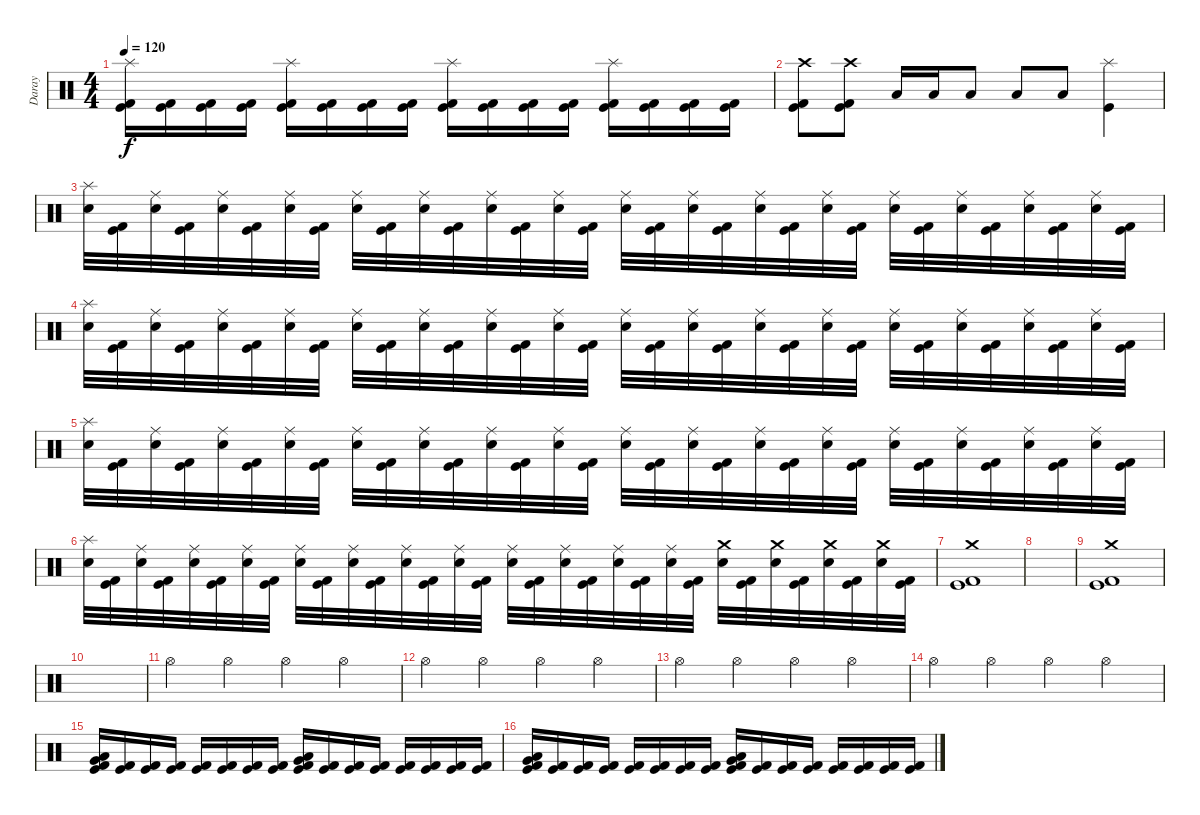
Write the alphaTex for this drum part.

\track ("Daray" "Daray") {instrument percussion}
\staff {score}
\articulation defaults
\ts (4 4)
\tempo 120
\clef neutral
\ks c
("Splash (hit)" "Kick (hit) 2" "Kick (hit)").16{dy f} ("Kick (hit) 2" "Kick (hit)").16 ("Kick (hit) 2" "Kick (hit)").16 ("Kick (hit) 2" "Kick (hit)").16 ("Splash (hit)" "Kick (hit) 2" "Kick (hit)").16 ("Kick (hit) 2" "Kick (hit)").16 ("Kick (hit) 2" "Kick (hit)").16 ("Kick (hit) 2" "Kick (hit)").16 ("Splash (hit)" "Kick (hit) 2" "Kick (hit)").16 ("Kick (hit) 2" "Kick (hit)").16 ("Kick (hit) 2" "Kick (hit)").16 ("Kick (hit) 2" "Kick (hit)").16 ("Splash (hit)" "Kick (hit) 2" "Kick (hit)").16 ("Kick (hit) 2" "Kick (hit)").16 ("Kick (hit) 2" "Kick (hit)").16 ("Kick (hit) 2" "Kick (hit)").16 |
("Crash high (hit)" "Kick (hit) 2" "Kick (hit)").8 ("Crash high (hit)" "Kick (hit) 2" "Kick (hit)").8 "Low Tom (hit)".16 "Low Tom (hit)".16 "Low Floor Tom (hit)".8 "Low Floor Tom (hit)".8 "Low Floor Tom (hit)".8 ("Splash (hit)" "Kick (hit)").4 |
("Splash (hit)" "Snare (hit) 2").32 ("Kick (hit) 2" "Kick (hit)").32 ("Ride (middle)" "Snare (hit) 2").32 ("Kick (hit) 2" "Kick (hit)").32 ("Ride (middle)" "Snare (hit) 2").32 ("Kick (hit) 2" "Kick (hit)").32 ("Ride (middle)" "Snare (hit) 2").32 ("Kick (hit) 2" "Kick (hit)").32 ("Ride (middle)" "Snare (hit) 2").32 ("Kick (hit) 2" "Kick (hit)").32 ("Ride (middle)" "Snare (hit) 2").32 ("Kick (hit) 2" "Kick (hit)").32 ("Ride (middle)" "Snare (hit) 2").32 ("Kick (hit) 2" "Kick (hit)").32 ("Ride (middle)" "Snare (hit) 2").32 ("Kick (hit) 2" "Kick (hit)").32 ("Ride (middle)" "Snare (hit) 2").32 ("Kick (hit) 2" "Kick (hit)").32 ("Ride (middle)" "Snare (hit) 2").32 ("Kick (hit) 2" "Kick (hit)").32 ("Ride (middle)" "Snare (hit) 2").32 ("Kick (hit) 2" "Kick (hit)").32 ("Ride (middle)" "Snare (hit) 2").32 ("Kick (hit) 2" "Kick (hit)").32 ("Ride (middle)" "Snare (hit) 2").32 ("Kick (hit) 2" "Kick (hit)").32 ("Ride (middle)" "Snare (hit) 2").32 ("Kick (hit) 2" "Kick (hit)").32 ("Ride (middle)" "Snare (hit) 2").32 ("Kick (hit) 2" "Kick (hit)").32 ("Ride (middle)" "Snare (hit) 2").32 ("Kick (hit) 2" "Kick (hit)").32 |
("Splash (hit)" "Snare (hit) 2").32 ("Kick (hit) 2" "Kick (hit)").32 ("Ride (middle)" "Snare (hit) 2").32 ("Kick (hit) 2" "Kick (hit)").32 ("Ride (middle)" "Snare (hit) 2").32 ("Kick (hit) 2" "Kick (hit)").32 ("Ride (middle)" "Snare (hit) 2").32 ("Kick (hit) 2" "Kick (hit)").32 ("Ride (middle)" "Snare (hit) 2").32 ("Kick (hit) 2" "Kick (hit)").32 ("Ride (middle)" "Snare (hit) 2").32 ("Kick (hit) 2" "Kick (hit)").32 ("Ride (middle)" "Snare (hit) 2").32 ("Kick (hit) 2" "Kick (hit)").32 ("Ride (middle)" "Snare (hit) 2").32 ("Kick (hit) 2" "Kick (hit)").32 ("Ride (middle)" "Snare (hit) 2").32 ("Kick (hit) 2" "Kick (hit)").32 ("Ride (middle)" "Snare (hit) 2").32 ("Kick (hit) 2" "Kick (hit)").32 ("Ride (middle)" "Snare (hit) 2").32 ("Kick (hit) 2" "Kick (hit)").32 ("Ride (middle)" "Snare (hit) 2").32 ("Kick (hit) 2" "Kick (hit)").32 ("Ride (middle)" "Snare (hit) 2").32 ("Kick (hit) 2" "Kick (hit)").32 ("Ride (middle)" "Snare (hit) 2").32 ("Kick (hit) 2" "Kick (hit)").32 ("Ride (middle)" "Snare (hit) 2").32 ("Kick (hit) 2" "Kick (hit)").32 ("Ride (middle)" "Snare (hit) 2").32 ("Kick (hit) 2" "Kick (hit)").32 |
("Splash (hit)" "Snare (hit) 2").32 ("Kick (hit) 2" "Kick (hit)").32 ("Ride (middle)" "Snare (hit) 2").32 ("Kick (hit) 2" "Kick (hit)").32 ("Ride (middle)" "Snare (hit) 2").32 ("Kick (hit) 2" "Kick (hit)").32 ("Ride (middle)" "Snare (hit) 2").32 ("Kick (hit) 2" "Kick (hit)").32 ("Ride (middle)" "Snare (hit) 2").32 ("Kick (hit) 2" "Kick (hit)").32 ("Ride (middle)" "Snare (hit) 2").32 ("Kick (hit) 2" "Kick (hit)").32 ("Ride (middle)" "Snare (hit) 2").32 ("Kick (hit) 2" "Kick (hit)").32 ("Ride (middle)" "Snare (hit) 2").32 ("Kick (hit) 2" "Kick (hit)").32 ("Ride (middle)" "Snare (hit) 2").32 ("Kick (hit) 2" "Kick (hit)").32 ("Ride (middle)" "Snare (hit) 2").32 ("Kick (hit) 2" "Kick (hit)").32 ("Ride (middle)" "Snare (hit) 2").32 ("Kick (hit) 2" "Kick (hit)").32 ("Ride (middle)" "Snare (hit) 2").32 ("Kick (hit) 2" "Kick (hit)").32 ("Ride (middle)" "Snare (hit) 2").32 ("Kick (hit) 2" "Kick (hit)").32 ("Ride (middle)" "Snare (hit) 2").32 ("Kick (hit) 2" "Kick (hit)").32 ("Ride (middle)" "Snare (hit) 2").32 ("Kick (hit) 2" "Kick (hit)").32 ("Ride (middle)" "Snare (hit) 2").32 ("Kick (hit) 2" "Kick (hit)").32 |
("Splash (hit)" "Snare (hit) 2").32 ("Kick (hit) 2" "Kick (hit)").32 ("Ride (middle)" "Snare (hit) 2").32 ("Kick (hit) 2" "Kick (hit)").32 ("Ride (middle)" "Snare (hit) 2").32 ("Kick (hit) 2" "Kick (hit)").32 ("Ride (middle)" "Snare (hit) 2").32 ("Kick (hit) 2" "Kick (hit)").32 ("Ride (middle)" "Snare (hit) 2").32 ("Kick (hit) 2" "Kick (hit)").32 ("Ride (middle)" "Snare (hit) 2").32 ("Kick (hit) 2" "Kick (hit)").32 ("Ride (middle)" "Snare (hit) 2").32 ("Kick (hit) 2" "Kick (hit)").32 ("Ride (middle)" "Snare (hit) 2").32 ("Kick (hit) 2" "Kick (hit)").32 ("Ride (middle)" "Snare (hit) 2").32 ("Kick (hit) 2" "Kick (hit)").32 ("Ride (middle)" "Snare (hit) 2").32 ("Kick (hit) 2" "Kick (hit)").32 ("Ride (middle)" "Snare (hit) 2").32 ("Kick (hit) 2" "Kick (hit)").32 ("Ride (middle)" "Snare (hit) 2").32 ("Kick (hit) 2" "Kick (hit)").32 ("Crash medium (hit)" "Snare (hit) 2").32 ("Kick (hit) 2" "Kick (hit)").32 ("Crash medium (hit)" "Snare (hit) 2").32 ("Kick (hit) 2" "Kick (hit)").32 ("Crash medium (hit)" "Snare (hit) 2").32 ("Kick (hit) 2" "Kick (hit)").32 ("Crash medium (hit)" "Snare (hit) 2").32 ("Kick (hit) 2" "Kick (hit)").32 |
("Crash medium (hit)" "Kick (hit) 2" "Kick (hit)").1 |
|
("Crash medium (hit)" "Kick (hit) 2" "Kick (hit)").1 |
|
"Hi-Hat (open)".4 "Hi-Hat (open)".4 "Hi-Hat (open)".4 "Hi-Hat (open)".4 |
"Hi-Hat (open)".4 "Hi-Hat (open)".4 "Hi-Hat (open)".4 "Hi-Hat (open)".4 |
"Hi-Hat (open)".4 "Hi-Hat (open)".4 "Hi-Hat (open)".4 "Hi-Hat (open)".4 |
"Hi-Hat (open)".4 "Hi-Hat (open)".4 "Hi-Hat (open)".4 "Hi-Hat (open)".4 |
("Very Low Tom (hit)" "Low Tom (hit)" "Kick (hit) 2" "Kick (hit)").16 ("Kick (hit) 2" "Kick (hit)").16 ("Kick (hit) 2" "Kick (hit)").16 ("Kick (hit) 2" "Kick (hit)").16 ("Kick (hit) 2" "Kick (hit)").16 ("Kick (hit) 2" "Kick (hit)").16 ("Kick (hit) 2" "Kick (hit)").16 ("Kick (hit) 2" "Kick (hit)").16 ("Very Low Tom (hit)" "Low Tom (hit)" "Kick (hit) 2" "Kick (hit)").16 ("Kick (hit) 2" "Kick (hit)").16 ("Kick (hit) 2" "Kick (hit)").16 ("Kick (hit) 2" "Kick (hit)").16 ("Kick (hit) 2" "Kick (hit)").16 ("Kick (hit) 2" "Kick (hit)").16 ("Kick (hit) 2" "Kick (hit)").16 ("Kick (hit) 2" "Kick (hit)").16 |
("Very Low Tom (hit)" "Low Tom (hit)" "Kick (hit) 2" "Kick (hit)").16 ("Kick (hit) 2" "Kick (hit)").16 ("Kick (hit) 2" "Kick (hit)").16 ("Kick (hit) 2" "Kick (hit)").16 ("Kick (hit) 2" "Kick (hit)").16 ("Kick (hit) 2" "Kick (hit)").16 ("Kick (hit) 2" "Kick (hit)").16 ("Kick (hit) 2" "Kick (hit)").16 ("Very Low Tom (hit)" "Low Tom (hit)" "Kick (hit) 2" "Kick (hit)").16 ("Kick (hit) 2" "Kick (hit)").16 ("Kick (hit) 2" "Kick (hit)").16 ("Kick (hit) 2" "Kick (hit)").16 ("Kick (hit) 2" "Kick (hit)").16 ("Kick (hit) 2" "Kick (hit)").16 ("Kick (hit) 2" "Kick (hit)").16 ("Kick (hit) 2" "Kick (hit)").16
